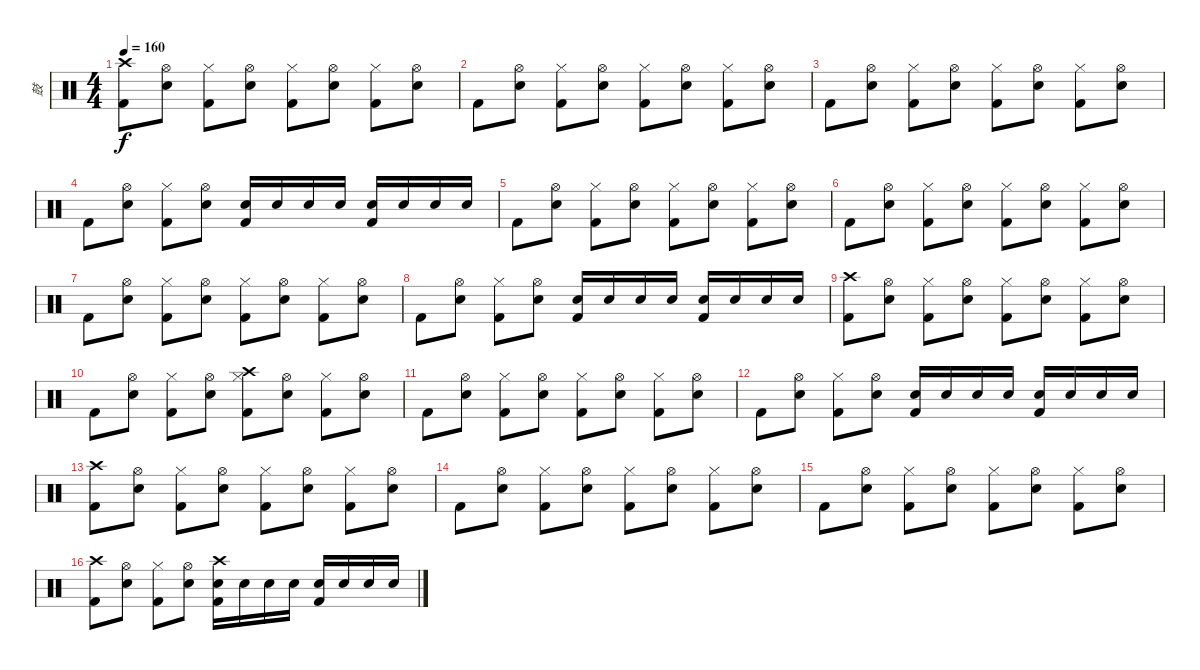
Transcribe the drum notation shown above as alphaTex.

\track ("鼓" "鼓") {instrument percussion}
\staff {score}
\articulation defaults
\ts (4 4)
\tempo 160
\clef neutral
\ks c
("Crash high (hit)" "Kick (hit) 2").8{dy f} ("Hi-Hat (open)" "Electric Snare (hit)").8 ("Hi-Hat (closed)" "Kick (hit) 2").8 ("Hi-Hat (open)" "Electric Snare (hit)").8 ("Hi-Hat (closed)" "Kick (hit) 2").8 ("Hi-Hat (open)" "Electric Snare (hit)").8 ("Hi-Hat (closed)" "Kick (hit) 2").8 ("Hi-Hat (open)" "Electric Snare (hit)").8 |
"Kick (hit) 2".8 ("Hi-Hat (open)" "Electric Snare (hit)").8 ("Hi-Hat (closed)" "Kick (hit) 2").8 ("Hi-Hat (open)" "Electric Snare (hit)").8 ("Hi-Hat (closed)" "Kick (hit) 2").8 ("Hi-Hat (open)" "Electric Snare (hit)").8 ("Hi-Hat (closed)" "Kick (hit) 2").8 ("Hi-Hat (open)" "Electric Snare (hit)").8 |
"Kick (hit) 2".8 ("Hi-Hat (open)" "Electric Snare (hit)").8 ("Hi-Hat (closed)" "Kick (hit) 2").8 ("Hi-Hat (open)" "Electric Snare (hit)").8 ("Hi-Hat (closed)" "Kick (hit) 2").8 ("Hi-Hat (open)" "Electric Snare (hit)").8 ("Hi-Hat (closed)" "Kick (hit) 2").8 ("Hi-Hat (open)" "Electric Snare (hit)").8 |
"Kick (hit) 2".8 ("Hi-Hat (open)" "Electric Snare (hit)").8 ("Hi-Hat (closed)" "Kick (hit) 2").8 ("Hi-Hat (open)" "Electric Snare (hit)").8 ("Electric Snare (hit)" "Kick (hit) 2").16 "Electric Snare (hit)".16 "Electric Snare (hit)".16 "Electric Snare (hit)".16 ("Electric Snare (hit)" "Kick (hit) 2").16 "Electric Snare (hit)".16 "Electric Snare (hit)".16 "Electric Snare (hit)".16 |
"Kick (hit) 2".8 ("Hi-Hat (open)" "Electric Snare (hit)").8 ("Hi-Hat (closed)" "Kick (hit) 2").8 ("Hi-Hat (open)" "Electric Snare (hit)").8 ("Hi-Hat (closed)" "Kick (hit) 2").8 ("Hi-Hat (open)" "Electric Snare (hit)").8 ("Hi-Hat (closed)" "Kick (hit) 2").8 ("Hi-Hat (open)" "Electric Snare (hit)").8 |
"Kick (hit) 2".8 ("Hi-Hat (open)" "Electric Snare (hit)").8 ("Hi-Hat (closed)" "Kick (hit) 2").8 ("Hi-Hat (open)" "Electric Snare (hit)").8 ("Hi-Hat (closed)" "Kick (hit) 2").8 ("Hi-Hat (open)" "Electric Snare (hit)").8 ("Hi-Hat (closed)" "Kick (hit) 2").8 ("Hi-Hat (open)" "Electric Snare (hit)").8 |
"Kick (hit) 2".8 ("Hi-Hat (open)" "Electric Snare (hit)").8 ("Hi-Hat (closed)" "Kick (hit) 2").8 ("Hi-Hat (open)" "Electric Snare (hit)").8 ("Hi-Hat (closed)" "Kick (hit) 2").8 ("Hi-Hat (open)" "Electric Snare (hit)").8 ("Hi-Hat (closed)" "Kick (hit) 2").8 ("Hi-Hat (open)" "Electric Snare (hit)").8 |
"Kick (hit) 2".8 ("Hi-Hat (open)" "Electric Snare (hit)").8 ("Hi-Hat (closed)" "Kick (hit) 2").8 ("Hi-Hat (open)" "Electric Snare (hit)").8 ("Electric Snare (hit)" "Kick (hit) 2").16 "Electric Snare (hit)".16 "Electric Snare (hit)".16 "Electric Snare (hit)".16 ("Electric Snare (hit)" "Kick (hit) 2").16 "Electric Snare (hit)".16 "Electric Snare (hit)".16 "Electric Snare (hit)".16 |
("Crash high (hit)" "Kick (hit) 2").8 ("Hi-Hat (open)" "Electric Snare (hit)").8 ("Hi-Hat (closed)" "Kick (hit) 2").8 ("Hi-Hat (open)" "Electric Snare (hit)").8 ("Hi-Hat (closed)" "Kick (hit) 2").8 ("Hi-Hat (open)" "Electric Snare (hit)").8 ("Hi-Hat (closed)" "Kick (hit) 2").8 ("Hi-Hat (open)" "Electric Snare (hit)").8 |
"Kick (hit) 2".8 ("Hi-Hat (open)" "Electric Snare (hit)").8 ("Hi-Hat (closed)" "Kick (hit) 2").8 ("Hi-Hat (open)" "Electric Snare (hit)").8 ("Hi-Hat (closed)" "Crash high (hit)" "Kick (hit) 2").8 ("Hi-Hat (open)" "Electric Snare (hit)").8 ("Hi-Hat (closed)" "Kick (hit) 2").8 ("Hi-Hat (open)" "Electric Snare (hit)").8 |
"Kick (hit) 2".8 ("Hi-Hat (open)" "Electric Snare (hit)").8 ("Hi-Hat (closed)" "Kick (hit) 2").8 ("Hi-Hat (open)" "Electric Snare (hit)").8 ("Hi-Hat (closed)" "Kick (hit) 2").8 ("Hi-Hat (open)" "Electric Snare (hit)").8 ("Hi-Hat (closed)" "Kick (hit) 2").8 ("Hi-Hat (open)" "Electric Snare (hit)").8 |
"Kick (hit) 2".8 ("Hi-Hat (open)" "Electric Snare (hit)").8 ("Hi-Hat (closed)" "Kick (hit) 2").8 ("Hi-Hat (open)" "Electric Snare (hit)").8 ("Electric Snare (hit)" "Kick (hit) 2").16 "Electric Snare (hit)".16 "Electric Snare (hit)".16 "Electric Snare (hit)".16 ("Electric Snare (hit)" "Kick (hit) 2").16 "Electric Snare (hit)".16 "Electric Snare (hit)".16 "Electric Snare (hit)".16 |
("Crash high (hit)" "Kick (hit) 2").8 ("Hi-Hat (open)" "Electric Snare (hit)").8 ("Hi-Hat (closed)" "Kick (hit) 2").8 ("Hi-Hat (open)" "Electric Snare (hit)").8 ("Hi-Hat (closed)" "Kick (hit) 2").8 ("Hi-Hat (open)" "Electric Snare (hit)").8 ("Hi-Hat (closed)" "Kick (hit) 2").8 ("Hi-Hat (open)" "Electric Snare (hit)").8 |
"Kick (hit) 2".8 ("Hi-Hat (open)" "Electric Snare (hit)").8 ("Hi-Hat (closed)" "Kick (hit) 2").8 ("Hi-Hat (open)" "Electric Snare (hit)").8 ("Hi-Hat (closed)" "Kick (hit) 2").8 ("Hi-Hat (open)" "Electric Snare (hit)").8 ("Hi-Hat (closed)" "Kick (hit) 2").8 ("Hi-Hat (open)" "Electric Snare (hit)").8 |
"Kick (hit) 2".8 ("Hi-Hat (open)" "Electric Snare (hit)").8 ("Hi-Hat (closed)" "Kick (hit) 2").8 ("Hi-Hat (open)" "Electric Snare (hit)").8 ("Hi-Hat (closed)" "Kick (hit) 2").8 ("Hi-Hat (open)" "Electric Snare (hit)").8 ("Hi-Hat (closed)" "Kick (hit) 2").8 ("Hi-Hat (open)" "Electric Snare (hit)").8 |
("Crash high (hit)" "Kick (hit) 2").8 ("Hi-Hat (open)" "Electric Snare (hit)").8 ("Hi-Hat (closed)" "Kick (hit) 2").8 ("Hi-Hat (open)" "Electric Snare (hit)").8 ("Crash high (hit)" "Electric Snare (hit)" "Kick (hit) 2").16 "Electric Snare (hit)".16 "Electric Snare (hit)".16 "Electric Snare (hit)".16 ("Electric Snare (hit)" "Kick (hit) 2").16 "Electric Snare (hit)".16 "Electric Snare (hit)".16 "Electric Snare (hit)".16
